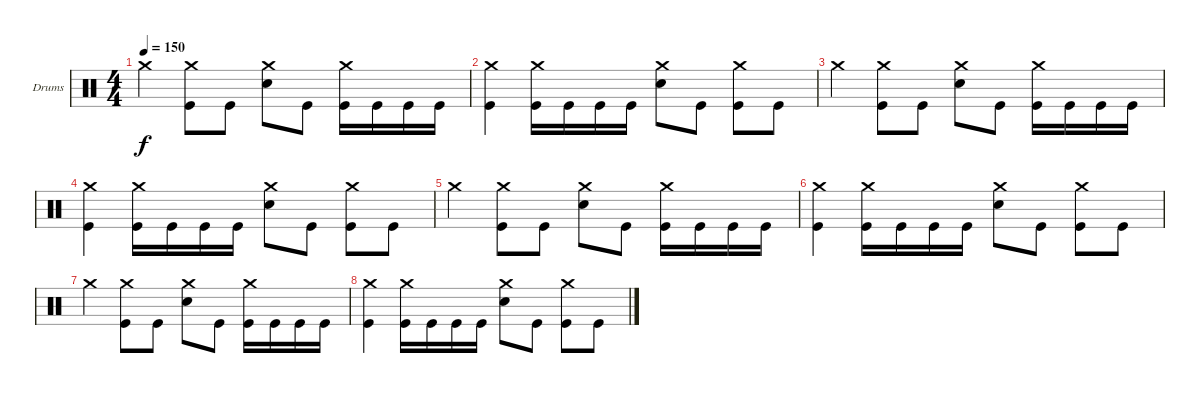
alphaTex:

\defaultSystemsLayout 4
\bracketExtendMode groupsimilarinstruments
\firstSystemTrackNameOrientation horizontal
\otherSystemsTrackNameOrientation horizontal
\track ("Drumkit" "Drums") {instrument percussion}
\staff {score}
\articulation defaults
\ts (4 4)
\tempo 150
\clef neutral
\ks c "Crash medium (hit)".4{dy f}
("Kick (hit)" "Crash medium (hit)").8 "Kick (hit)".8 ("Snare (hit) 2" "Crash medium (hit)").8 "Kick (hit)".8 ("Kick (hit)" "Crash medium (hit)").16 "Kick (hit)".16 "Kick (hit)".16 "Kick (hit)".16 |
("Crash medium (hit)" "Kick (hit)").4 ("Kick (hit)" "Crash medium (hit)").16 "Kick (hit)".16 "Kick (hit)".16 "Kick (hit)".16 ("Crash medium (hit)" "Snare (hit) 2").8 "Kick (hit)".8 ("Kick (hit)" "Crash medium (hit)").8 "Kick (hit)".8 |
"Crash medium (hit)".4 ("Kick (hit)" "Crash medium (hit)").8 "Kick (hit)".8 ("Snare (hit) 2" "Crash medium (hit)").8 "Kick (hit)".8 ("Kick (hit)" "Crash medium (hit)").16 "Kick (hit)".16 "Kick (hit)".16 "Kick (hit)".16 |
("Crash medium (hit)" "Kick (hit)").4 ("Kick (hit)" "Crash medium (hit)").16 "Kick (hit)".16 "Kick (hit)".16 "Kick (hit)".16 ("Crash medium (hit)" "Snare (hit) 2").8 "Kick (hit)".8 ("Kick (hit)" "Crash medium (hit)").8 "Kick (hit)".8 |
"Crash medium (hit)".4 ("Kick (hit)" "Crash medium (hit)").8 "Kick (hit)".8 ("Snare (hit) 2" "Crash medium (hit)").8 "Kick (hit)".8 ("Kick (hit)" "Crash medium (hit)").16 "Kick (hit)".16 "Kick (hit)".16 "Kick (hit)".16 |
("Crash medium (hit)" "Kick (hit)").4 ("Kick (hit)" "Crash medium (hit)").16 "Kick (hit)".16 "Kick (hit)".16 "Kick (hit)".16 ("Crash medium (hit)" "Snare (hit) 2").8 "Kick (hit)".8 ("Kick (hit)" "Crash medium (hit)").8 "Kick (hit)".8 |
"Crash medium (hit)".4 ("Kick (hit)" "Crash medium (hit)").8 "Kick (hit)".8 ("Snare (hit) 2" "Crash medium (hit)").8 "Kick (hit)".8 ("Kick (hit)" "Crash medium (hit)").16 "Kick (hit)".16 "Kick (hit)".16 "Kick (hit)".16 |
("Crash medium (hit)" "Kick (hit)").4 ("Kick (hit)" "Crash medium (hit)").16 "Kick (hit)".16 "Kick (hit)".16 "Kick (hit)".16 ("Crash medium (hit)" "Snare (hit) 2").8 "Kick (hit)".8 ("Kick (hit)" "Crash medium (hit)").8 "Kick (hit)".8
